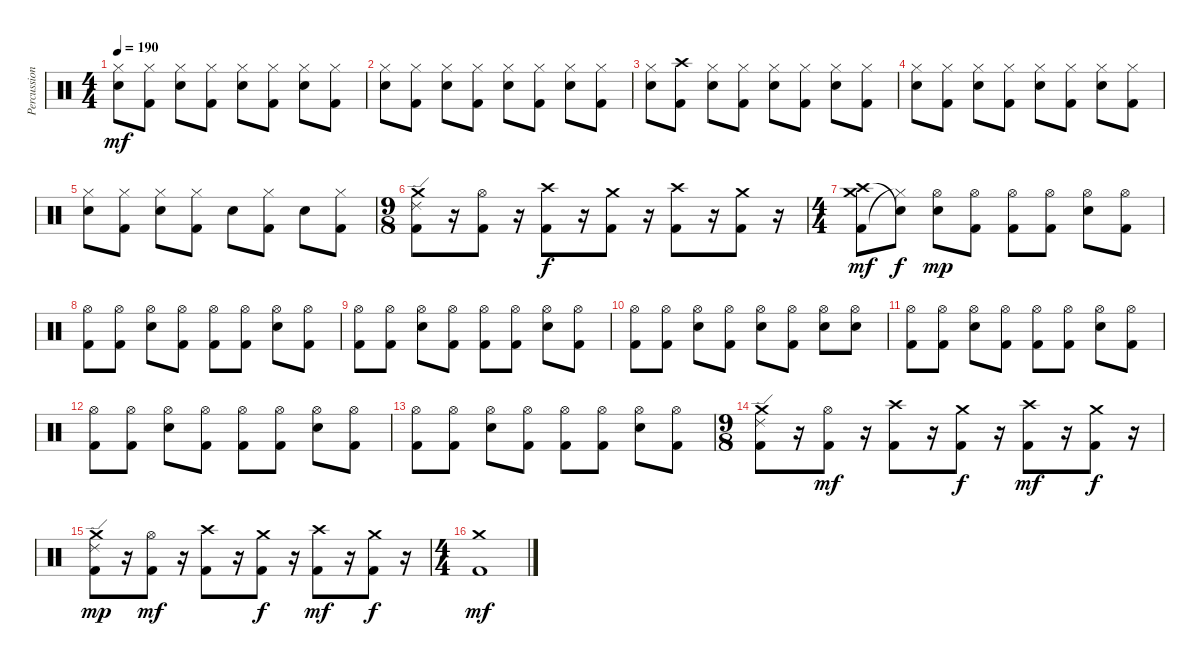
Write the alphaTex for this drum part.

\track ("Percussion" "Percussion") {instrument percussion}
\staff {score}
\articulation defaults
\ts (4 4)
\tempo 190
\clef neutral
\ks c
("Snare (hit) 2" "Hi-Hat (closed)").8{dy mf} ("Kick (hit) 2" "Hi-Hat (closed)").8 ("Snare (hit) 2" "Hi-Hat (closed)").8 ("Kick (hit) 2" "Hi-Hat (closed)").8 ("Snare (hit) 2" "Hi-Hat (closed)").8 ("Kick (hit) 2" "Hi-Hat (closed)").8 ("Snare (hit) 2" "Hi-Hat (closed)").8 ("Kick (hit) 2" "Hi-Hat (closed)").8 |
("Snare (hit) 2" "Hi-Hat (closed)").8 ("Kick (hit) 2" "Hi-Hat (closed)").8 ("Snare (hit) 2" "Hi-Hat (closed)").8 ("Kick (hit) 2" "Hi-Hat (closed)").8 ("Snare (hit) 2" "Hi-Hat (closed)").8 ("Kick (hit) 2" "Hi-Hat (closed)").8 ("Snare (hit) 2" "Hi-Hat (closed)").8 ("Kick (hit) 2" "Hi-Hat (closed)").8 |
("Snare (hit) 2" "Hi-Hat (closed)").8 ("Kick (hit) 2" "Crash high (hit)").8 ("Snare (hit) 2" "Hi-Hat (closed)").8 ("Kick (hit) 2" "Hi-Hat (closed)").8 ("Snare (hit) 2" "Hi-Hat (closed)").8 ("Kick (hit) 2" "Hi-Hat (closed)").8 ("Snare (hit) 2" "Hi-Hat (closed)").8 ("Kick (hit) 2" "Hi-Hat (closed)").8 |
("Snare (hit) 2" "Hi-Hat (closed)").8 ("Kick (hit) 2" "Hi-Hat (closed)").8 ("Snare (hit) 2" "Hi-Hat (closed)").8 ("Kick (hit) 2" "Hi-Hat (closed)").8 ("Snare (hit) 2" "Hi-Hat (closed)").8 ("Kick (hit) 2" "Hi-Hat (closed)").8 ("Snare (hit) 2" "Hi-Hat (closed)").8 ("Kick (hit) 2" "Hi-Hat (closed)").8 |
("Snare (hit) 2" "Hi-Hat (closed)").8 ("Kick (hit) 2" "Hi-Hat (closed)").8 ("Snare (hit) 2" "Hi-Hat (closed)").8 ("Kick (hit) 2" "Hi-Hat (closed)").8 "Snare (hit) 2".8 ("Kick (hit) 2" "Hi-Hat (closed)").8 "Snare (hit) 2".8 ("Kick (hit) 2" "Hi-Hat (closed)").8 |
\ts (9 8)
("Kick (hit) 2" "Crash medium (hit)" "Ride (edge) 2").8 r.16 ("Kick (hit) 2" "Hi-Hat (open)").8 r.16 ("Kick (hit) 2" "Crash high (hit)").8{dy f} r.16 ("Kick (hit) 2" "Crash medium (hit)").8 r.16 ("Kick (hit) 2" "Crash high (hit)").8 r.16 ("Kick (hit) 2" "Crash medium (hit)").8 r.16 |
\ts (4 4)
("Kick (hit) 2" "Crash high (hit)" "Crash medium (hit)").8{dy mf} ("Hi-Hat (closed)"{t} "Snare (hit)"{t}).8{dy f} ("Snare (hit) 2" "Hi-Hat (open)").8{dy mp} ("Kick (hit) 2" "Hi-Hat (open)").8 ("Kick (hit) 2" "Hi-Hat (open)").8 ("Kick (hit) 2" "Hi-Hat (open)").8 ("Snare (hit) 2" "Hi-Hat (open)").8 ("Kick (hit) 2" "Hi-Hat (open)").8 |
("Kick (hit) 2" "Hi-Hat (open)").8 ("Kick (hit) 2" "Hi-Hat (open)").8 ("Snare (hit) 2" "Hi-Hat (open)").8 ("Kick (hit) 2" "Hi-Hat (open)").8 ("Kick (hit) 2" "Hi-Hat (open)").8 ("Kick (hit) 2" "Hi-Hat (open)").8 ("Snare (hit) 2" "Hi-Hat (open)").8 ("Kick (hit) 2" "Hi-Hat (open)").8 |
("Kick (hit) 2" "Hi-Hat (open)").8 ("Kick (hit) 2" "Hi-Hat (open)").8 ("Snare (hit) 2" "Hi-Hat (open)").8 ("Kick (hit) 2" "Hi-Hat (open)").8 ("Kick (hit) 2" "Hi-Hat (open)").8 ("Kick (hit) 2" "Hi-Hat (open)").8 ("Snare (hit) 2" "Hi-Hat (open)").8 ("Kick (hit) 2" "Hi-Hat (open)").8 |
("Kick (hit) 2" "Hi-Hat (open)").8 ("Kick (hit) 2" "Hi-Hat (open)").8 ("Snare (hit) 2" "Hi-Hat (open)").8 ("Kick (hit) 2" "Hi-Hat (open)").8 ("Snare (hit) 2" "Hi-Hat (open)").8 ("Kick (hit) 2" "Hi-Hat (open)").8 ("Snare (hit) 2" "Hi-Hat (open)").8 ("Snare (hit) 2" "Hi-Hat (open)").8 |
("Kick (hit) 2" "Hi-Hat (open)").8 ("Kick (hit) 2" "Hi-Hat (open)").8 ("Snare (hit) 2" "Hi-Hat (open)").8 ("Kick (hit) 2" "Hi-Hat (open)").8 ("Kick (hit) 2" "Hi-Hat (open)").8 ("Kick (hit) 2" "Hi-Hat (open)").8 ("Snare (hit) 2" "Hi-Hat (open)").8 ("Kick (hit) 2" "Hi-Hat (open)").8 |
("Kick (hit) 2" "Hi-Hat (open)").8 ("Kick (hit) 2" "Hi-Hat (open)").8 ("Snare (hit) 2" "Hi-Hat (open)").8 ("Kick (hit) 2" "Hi-Hat (open)").8 ("Kick (hit) 2" "Hi-Hat (open)").8 ("Kick (hit) 2" "Hi-Hat (open)").8 ("Snare (hit) 2" "Hi-Hat (open)").8 ("Kick (hit) 2" "Hi-Hat (open)").8 |
("Kick (hit) 2" "Hi-Hat (open)").8 ("Kick (hit) 2" "Hi-Hat (open)").8 ("Snare (hit) 2" "Hi-Hat (open)").8 ("Kick (hit) 2" "Hi-Hat (open)").8 ("Kick (hit) 2" "Hi-Hat (open)").8 ("Kick (hit) 2" "Hi-Hat (open)").8 ("Snare (hit) 2" "Hi-Hat (open)").8 ("Kick (hit) 2" "Hi-Hat (open)").8 |
\ts (9 8)
("Kick (hit) 2" "Crash medium (hit)" "Ride (edge) 2").8 r.16 ("Kick (hit) 2" "Hi-Hat (open)").8{dy mf} r.16 ("Kick (hit) 2" "Crash high (hit)").8 r.16 ("Kick (hit) 2" "Crash medium (hit)").8{dy f} r.16 ("Kick (hit) 2" "Crash high (hit)").8{dy mf} r.16 ("Kick (hit) 2" "Crash medium (hit)").8{dy f} r.16 |
("Kick (hit) 2" "Crash medium (hit)" "Ride (edge) 2").8{dy mp} r.16 ("Kick (hit) 2" "Hi-Hat (open)").8{dy mf} r.16 ("Kick (hit) 2" "Crash high (hit)").8 r.16 ("Kick (hit) 2" "Crash medium (hit)").8{dy f} r.16 ("Kick (hit) 2" "Crash high (hit)").8{dy mf} r.16 ("Kick (hit) 2" "Crash medium (hit)").8{dy f} r.16 |
\ts (4 4)
("Kick (hit) 2" "Crash medium (hit)").1{dy mf}
